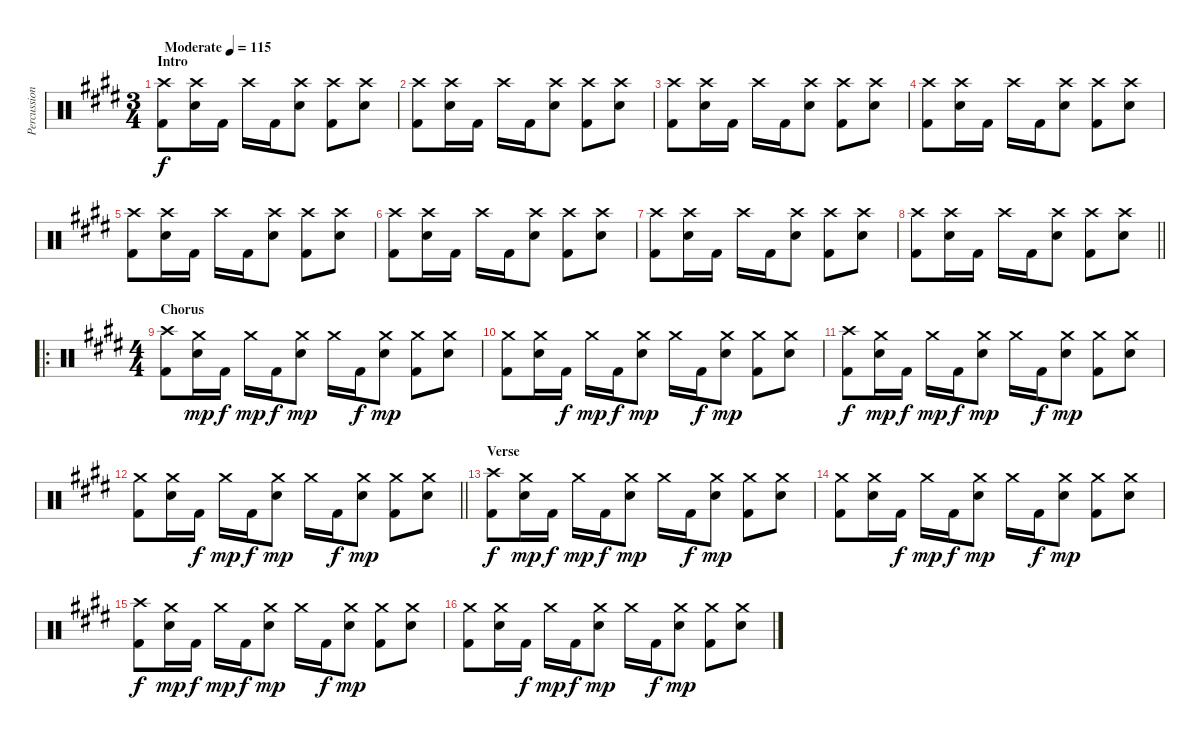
\track ("Percussion" "Percussion") {instrument percussion}
\staff {score}
\articulation defaults
\ts (3 4)
\section ("" "Intro")
\tempo (115 "Moderate")
\clef neutral
\ks e
("Crash high (hit)" "Kick (hit) 2").8{dy f} ("Crash high (hit)" "Electric Snare (hit)").16 "Kick (hit) 2".16 "Crash high (hit)".16 "Kick (hit) 2".16 ("Crash high (hit)" "Electric Snare (hit)").8 ("Crash high (hit)" "Kick (hit) 2").8 ("Crash high (hit)" "Electric Snare (hit)").8 |
("Crash high (hit)" "Kick (hit) 2").8 ("Crash high (hit)" "Electric Snare (hit)").16 "Kick (hit) 2".16 "Crash high (hit)".16 "Kick (hit) 2".16 ("Crash high (hit)" "Electric Snare (hit)").8 ("Crash high (hit)" "Kick (hit) 2").8 ("Crash high (hit)" "Electric Snare (hit)").8 |
("Crash high (hit)" "Kick (hit) 2").8 ("Crash high (hit)" "Electric Snare (hit)").16 "Kick (hit) 2".16 "Crash high (hit)".16 "Kick (hit) 2".16 ("Crash high (hit)" "Electric Snare (hit)").8 ("Crash high (hit)" "Kick (hit) 2").8 ("Crash high (hit)" "Electric Snare (hit)").8 |
("Crash high (hit)" "Kick (hit) 2").8 ("Crash high (hit)" "Electric Snare (hit)").16 "Kick (hit) 2".16 "Crash high (hit)".16 "Kick (hit) 2".16 ("Crash high (hit)" "Electric Snare (hit)").8 ("Crash high (hit)" "Kick (hit) 2").8 ("Crash high (hit)" "Electric Snare (hit)").8 |
("Crash high (hit)" "Kick (hit) 2").8 ("Crash high (hit)" "Electric Snare (hit)").16 "Kick (hit) 2".16 "Crash high (hit)".16 "Kick (hit) 2".16 ("Crash high (hit)" "Electric Snare (hit)").8 ("Crash high (hit)" "Kick (hit) 2").8 ("Crash high (hit)" "Electric Snare (hit)").8 |
("Crash high (hit)" "Kick (hit) 2").8 ("Crash high (hit)" "Electric Snare (hit)").16 "Kick (hit) 2".16 "Crash high (hit)".16 "Kick (hit) 2".16 ("Crash high (hit)" "Electric Snare (hit)").8 ("Crash high (hit)" "Kick (hit) 2").8 ("Crash high (hit)" "Electric Snare (hit)").8 |
("Crash high (hit)" "Kick (hit) 2").8 ("Crash high (hit)" "Electric Snare (hit)").16 "Kick (hit) 2".16 "Crash high (hit)".16 "Kick (hit) 2".16 ("Crash high (hit)" "Electric Snare (hit)").8 ("Crash high (hit)" "Kick (hit) 2").8 ("Crash high (hit)" "Electric Snare (hit)").8 |
\barLineRight lightlight
("Crash high (hit)" "Kick (hit) 2").8 ("Crash high (hit)" "Electric Snare (hit)").16 "Kick (hit) 2".16 "Crash high (hit)".16 "Kick (hit) 2".16 ("Crash high (hit)" "Electric Snare (hit)").8 ("Crash high (hit)" "Kick (hit) 2").8 ("Crash high (hit)" "Electric Snare (hit)").8 |
\ro
\ts (4 4)
\section ("" "Chorus")
("Crash high (hit)" "Kick (hit) 2").8 ("Crash medium (hit)" "Electric Snare (hit)").16{dy mp} "Kick (hit) 2".16{dy f} "Crash medium (hit)".16{dy mp} "Kick (hit) 2".16{dy f} ("Crash medium (hit)" "Electric Snare (hit)").8{dy mp} "Crash medium (hit)".16 "Kick (hit) 2".16{dy f} ("Crash medium (hit)" "Electric Snare (hit)").8{dy mp} ("Crash medium (hit)" "Kick (hit) 2").8 ("Crash medium (hit)" "Electric Snare (hit)").8 |
("Crash medium (hit)" "Kick (hit) 2").8 ("Crash medium (hit)" "Electric Snare (hit)").16 "Kick (hit) 2".16{dy f} "Crash medium (hit)".16{dy mp} "Kick (hit) 2".16{dy f} ("Crash medium (hit)" "Electric Snare (hit)").8{dy mp} "Crash medium (hit)".16 "Kick (hit) 2".16{dy f} ("Crash medium (hit)" "Electric Snare (hit)").8{dy mp} ("Crash medium (hit)" "Kick (hit) 2").8 ("Crash medium (hit)" "Electric Snare (hit)").8 |
("Crash high (hit)" "Kick (hit) 2").8{dy f} ("Crash medium (hit)" "Electric Snare (hit)").16{dy mp} "Kick (hit) 2".16{dy f} "Crash medium (hit)".16{dy mp} "Kick (hit) 2".16{dy f} ("Crash medium (hit)" "Electric Snare (hit)").8{dy mp} "Crash medium (hit)".16 "Kick (hit) 2".16{dy f} ("Crash medium (hit)" "Electric Snare (hit)").8{dy mp} ("Crash medium (hit)" "Kick (hit) 2").8 ("Crash medium (hit)" "Electric Snare (hit)").8 |
\barLineRight lightlight
("Crash medium (hit)" "Kick (hit) 2").8 ("Crash medium (hit)" "Electric Snare (hit)").16 "Kick (hit) 2".16{dy f} "Crash medium (hit)".16{dy mp} "Kick (hit) 2".16{dy f} ("Crash medium (hit)" "Electric Snare (hit)").8{dy mp} "Crash medium (hit)".16 "Kick (hit) 2".16{dy f} ("Crash medium (hit)" "Electric Snare (hit)").8{dy mp} ("Crash medium (hit)" "Kick (hit) 2").8 ("Crash medium (hit)" "Electric Snare (hit)").8 |
\section ("" "Verse")
("Crash high (hit)" "Kick (hit) 2").8{dy f} ("Crash medium (hit)" "Electric Snare (hit)").16{dy mp} "Kick (hit) 2".16{dy f} "Crash medium (hit)".16{dy mp} "Kick (hit) 2".16{dy f} ("Crash medium (hit)" "Electric Snare (hit)").8{dy mp} "Crash medium (hit)".16 "Kick (hit) 2".16{dy f} ("Crash medium (hit)" "Electric Snare (hit)").8{dy mp} ("Crash medium (hit)" "Kick (hit) 2").8 ("Crash medium (hit)" "Electric Snare (hit)").8 |
("Crash medium (hit)" "Kick (hit) 2").8 ("Crash medium (hit)" "Electric Snare (hit)").16 "Kick (hit) 2".16{dy f} "Crash medium (hit)".16{dy mp} "Kick (hit) 2".16{dy f} ("Crash medium (hit)" "Electric Snare (hit)").8{dy mp} "Crash medium (hit)".16 "Kick (hit) 2".16{dy f} ("Crash medium (hit)" "Electric Snare (hit)").8{dy mp} ("Crash medium (hit)" "Kick (hit) 2").8 ("Crash medium (hit)" "Electric Snare (hit)").8 |
("Crash high (hit)" "Kick (hit) 2").8{dy f} ("Crash medium (hit)" "Electric Snare (hit)").16{dy mp} "Kick (hit) 2".16{dy f} "Crash medium (hit)".16{dy mp} "Kick (hit) 2".16{dy f} ("Crash medium (hit)" "Electric Snare (hit)").8{dy mp} "Crash medium (hit)".16 "Kick (hit) 2".16{dy f} ("Crash medium (hit)" "Electric Snare (hit)").8{dy mp} ("Crash medium (hit)" "Kick (hit) 2").8 ("Crash medium (hit)" "Electric Snare (hit)").8 |
("Crash medium (hit)" "Kick (hit) 2").8 ("Crash medium (hit)" "Electric Snare (hit)").16 "Kick (hit) 2".16{dy f} "Crash medium (hit)".16{dy mp} "Kick (hit) 2".16{dy f} ("Crash medium (hit)" "Electric Snare (hit)").8{dy mp} "Crash medium (hit)".16 "Kick (hit) 2".16{dy f} ("Crash medium (hit)" "Electric Snare (hit)").8{dy mp} ("Crash medium (hit)" "Kick (hit) 2").8 ("Crash medium (hit)" "Electric Snare (hit)").8
